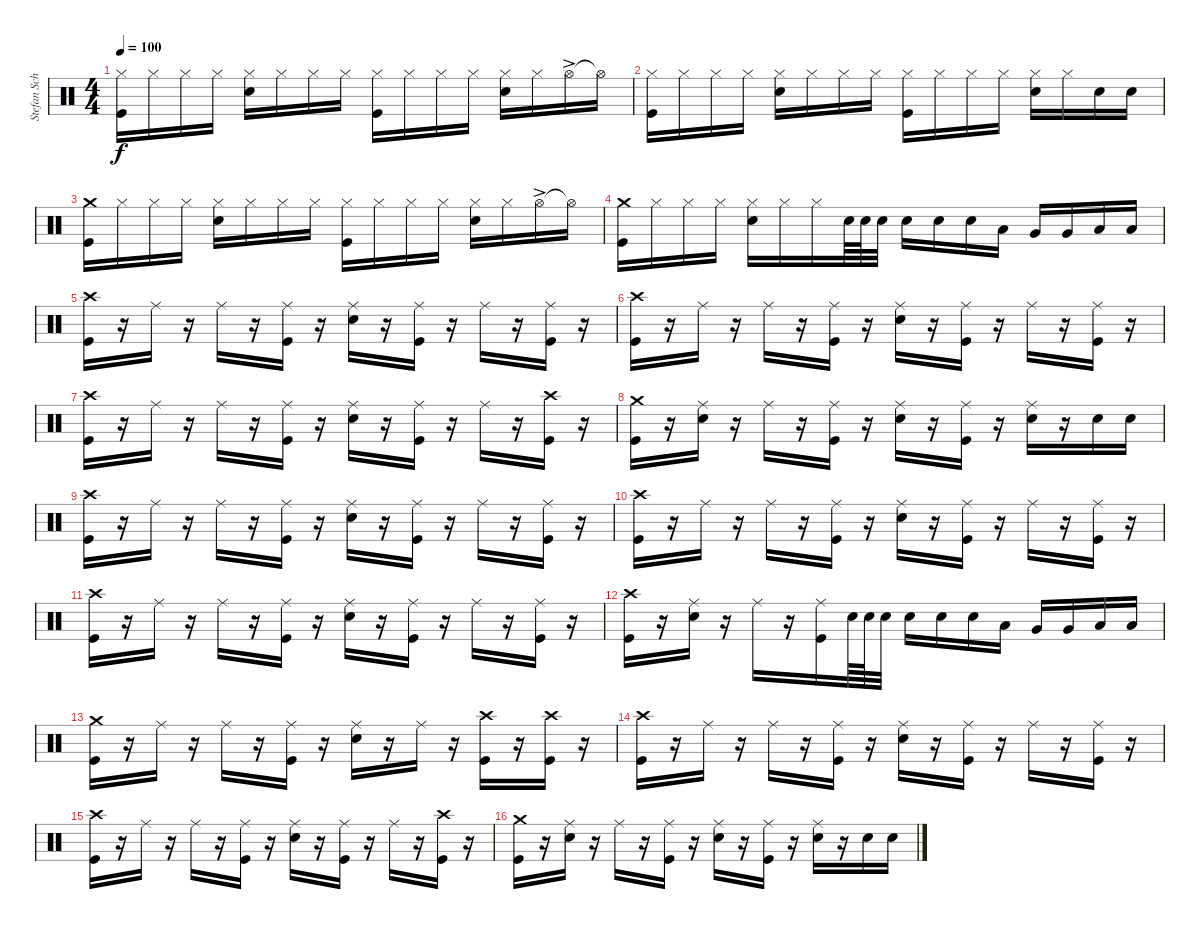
\track ("Stefan Schwarzmann" "Stefan Sch") {instrument percussion}
\staff {score}
\articulation defaults
\ts (4 4)
\tempo 100
\clef neutral
\ks c
("Kick (hit)" "Hi-Hat (closed)").16{dy f} "Hi-Hat (closed)".16 "Hi-Hat (closed)".16 "Hi-Hat (closed)".16 ("Snare (hit) 2" "Hi-Hat (closed)").16 "Hi-Hat (closed)".16 "Hi-Hat (closed)".16 "Hi-Hat (closed)".16 ("Kick (hit)" "Hi-Hat (closed)").16 "Hi-Hat (closed)".16 "Hi-Hat (closed)".16 "Hi-Hat (closed)".16 ("Snare (hit) 2" "Hi-Hat (closed)").16 "Hi-Hat (closed)".16 "Hi-Hat (open)"{ac}.16 "Hi-Hat (open)"{t}.16 |
("Kick (hit)" "Hi-Hat (closed)").16 "Hi-Hat (closed)".16 "Hi-Hat (closed)".16 "Hi-Hat (closed)".16 ("Snare (hit) 2" "Hi-Hat (closed)").16 "Hi-Hat (closed)".16 "Hi-Hat (closed)".16 "Hi-Hat (closed)".16 ("Kick (hit)" "Hi-Hat (closed)").16 "Hi-Hat (closed)".16 "Hi-Hat (closed)".16 "Hi-Hat (closed)".16 ("Snare (hit) 2" "Hi-Hat (closed)").16 "Hi-Hat (closed)".16 "Snare (hit) 2".16 "Snare (hit) 2".16 |
("Kick (hit)" "Crash medium (hit)").16 "Hi-Hat (closed)".16 "Hi-Hat (closed)".16 "Hi-Hat (closed)".16 ("Snare (hit) 2" "Hi-Hat (closed)").16 "Hi-Hat (closed)".16 "Hi-Hat (closed)".16 "Hi-Hat (closed)".16 ("Kick (hit)" "Hi-Hat (closed)").16 "Hi-Hat (closed)".16 "Hi-Hat (closed)".16 "Hi-Hat (closed)".16 ("Snare (hit) 2" "Hi-Hat (closed)").16 "Hi-Hat (closed)".16 "Hi-Hat (open)"{ac}.16 "Hi-Hat (open)"{t}.16 |
("Kick (hit)" "Crash medium (hit)").16 "Hi-Hat (closed)".16 "Hi-Hat (closed)".16 "Hi-Hat (closed)".16 ("Snare (hit) 2" "Hi-Hat (closed)").16 "Hi-Hat (closed)".16 "Hi-Hat (closed)".16 "Snare (hit) 2".64 "Snare (hit) 2".64 "Snare (hit) 2".32 "Snare (hit) 2".16 "Snare (hit) 2".16 "Snare (hit) 2".16 "Low Tom (hit)".16 "Very Low Tom (hit)".16 "Very Low Tom (hit)".16 "Low Floor Tom (hit)".16 "Low Floor Tom (hit)".16 |
("Kick (hit)" "Crash high (hit)").16 r.16 "Ride (middle)".16 r.16 "Ride (middle)".16 r.16 ("Kick (hit)" "Ride (middle)").16 r.16 ("Snare (hit) 2" "Ride (middle)").16 r.16 ("Kick (hit)" "Ride (middle)").16 r.16 "Ride (middle)".16 r.16 ("Kick (hit)" "Ride (middle)").16 r.16 |
("Kick (hit)" "Crash high (hit)").16 r.16 "Ride (middle)".16 r.16 "Ride (middle)".16 r.16 ("Kick (hit)" "Ride (middle)").16 r.16 ("Snare (hit) 2" "Ride (middle)").16 r.16 ("Kick (hit)" "Ride (middle)").16 r.16 "Ride (middle)".16 r.16 ("Kick (hit)" "Ride (middle)").16 r.16 |
("Kick (hit)" "Crash high (hit)").16 r.16 "Ride (middle)".16 r.16 "Ride (middle)".16 r.16 ("Kick (hit)" "Ride (middle)").16 r.16 ("Snare (hit) 2" "Ride (middle)").16 r.16 ("Kick (hit)" "Ride (middle)").16 r.16 "Ride (middle)".16 r.16 ("Kick (hit)" "Crash high (hit)").16 r.16 |
("Kick (hit)" "Crash medium (hit)").16 r.16 ("Ride (middle)" "Snare (hit) 2").16 r.16 "Ride (middle)".16 r.16 ("Kick (hit)" "Ride (middle)").16 r.16 ("Snare (hit) 2" "Ride (middle)").16 r.16 ("Kick (hit)" "Ride (middle)").16 r.16 ("Ride (middle)" "Snare (hit) 2").16 r.16 "Snare (hit) 2".16 "Snare (hit) 2".16 |
("Kick (hit)" "Crash high (hit)").16 r.16 "Ride (middle)".16 r.16 "Ride (middle)".16 r.16 ("Kick (hit)" "Ride (middle)").16 r.16 ("Snare (hit) 2" "Ride (middle)").16 r.16 ("Kick (hit)" "Ride (middle)").16 r.16 "Ride (middle)".16 r.16 ("Kick (hit)" "Ride (middle)").16 r.16 |
("Kick (hit)" "Crash high (hit)").16 r.16 "Ride (middle)".16 r.16 "Ride (middle)".16 r.16 ("Kick (hit)" "Ride (middle)").16 r.16 ("Snare (hit) 2" "Ride (middle)").16 r.16 ("Kick (hit)" "Ride (middle)").16 r.16 "Ride (middle)".16 r.16 ("Kick (hit)" "Ride (middle)").16 r.16 |
("Kick (hit)" "Crash high (hit)").16 r.16 "Ride (middle)".16 r.16 "Ride (middle)".16 r.16 ("Kick (hit)" "Ride (middle)").16 r.16 ("Snare (hit) 2" "Ride (middle)").16 r.16 ("Kick (hit)" "Ride (middle)").16 r.16 "Ride (middle)".16 r.16 ("Kick (hit)" "Ride (middle)").16 r.16 |
("Kick (hit)" "Crash high (hit)").16 r.16 ("Ride (middle)" "Snare (hit) 2").16 r.16 "Ride (middle)".16 r.16 ("Kick (hit)" "Ride (middle)").16 "Snare (hit) 2".64 "Snare (hit) 2".64 "Snare (hit) 2".32 "Snare (hit) 2".16 "Snare (hit) 2".16 "Snare (hit) 2".16 "Low Tom (hit)".16 "Very Low Tom (hit)".16 "Very Low Tom (hit)".16 "Low Floor Tom (hit)".16 "Low Floor Tom (hit)".16 |
("Kick (hit)" "Crash medium (hit)").16 r.16 "Ride (middle)".16 r.16 "Ride (middle)".16 r.16 ("Kick (hit)" "Ride (middle)").16 r.16 ("Snare (hit) 2" "Ride (middle)").16 r.16 "Ride (middle)".16 r.16 ("Kick (hit)" "Crash high (hit)").16 r.16 ("Kick (hit)" "Crash high (hit)").16 r.16 |
("Kick (hit)" "Crash high (hit)").16 r.16 "Ride (middle)".16 r.16 "Ride (middle)".16 r.16 ("Kick (hit)" "Ride (middle)").16 r.16 ("Snare (hit) 2" "Ride (middle)").16 r.16 ("Kick (hit)" "Ride (middle)").16 r.16 "Ride (middle)".16 r.16 ("Kick (hit)" "Ride (middle)").16 r.16 |
("Kick (hit)" "Crash high (hit)").16 r.16 "Ride (middle)".16 r.16 "Ride (middle)".16 r.16 ("Kick (hit)" "Ride (middle)").16 r.16 ("Snare (hit) 2" "Ride (middle)").16 r.16 ("Kick (hit)" "Ride (middle)").16 r.16 "Ride (middle)".16 r.16 ("Kick (hit)" "Crash high (hit)").16 r.16 |
("Kick (hit)" "Crash medium (hit)").16 r.16 ("Ride (middle)" "Snare (hit) 2").16 r.16 "Ride (middle)".16 r.16 ("Kick (hit)" "Ride (middle)").16 r.16 ("Snare (hit) 2" "Ride (middle)").16 r.16 ("Kick (hit)" "Ride (middle)").16 r.16 ("Ride (middle)" "Snare (hit) 2").16 r.16 "Snare (hit) 2".16 "Snare (hit) 2".16
